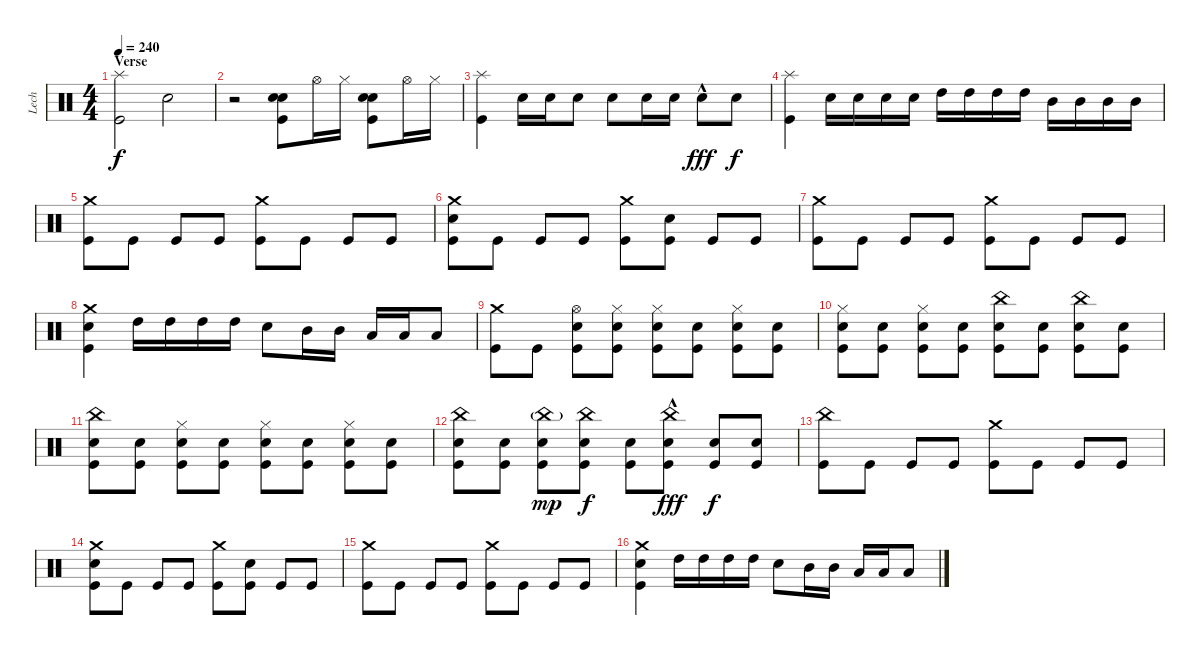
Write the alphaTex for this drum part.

\track ("Lech" "Lech") {instrument percussion}
\staff {score}
\articulation defaults
\ts (4 4)
\section ("" "Verse")
\tempo 240
\clef neutral
\ks c
("Splash (hit)" "Kick (hit)").2{dy f} "Snare (hit)".2{volume 0} |
r.2 ("Electric Snare (hit)" "Snare (hit) 2" "Kick (hit)").8{volume 13} "Hi-Hat (open)".16 "Hi-Hat (closed)".16 ("Electric Snare (hit)" "Snare (hit) 2" "Kick (hit)").8 "Hi-Hat (open)".16 "Hi-Hat (closed)".16 |
("Splash (hit)" "Kick (hit)").4 "Snare (hit) 2".16 "Snare (hit) 2".16 "Snare (hit) 2".8 "Snare (hit) 2".8 "Snare (hit) 2".16 "Snare (hit) 2".16 "Electric Snare (hit)"{hac}.8{dy fff} "Snare (hit) 2".8{dy f} |
("Splash (hit)" "Kick (hit)").4 "Snare (hit) 2".16 "Snare (hit) 2".16 "Snare (hit) 2".16 "Snare (hit) 2".16 "High Tom (hit)".16 "High Tom (hit)".16 "High Tom (hit)".16 "High Tom (hit)".16 "Mid Tom (hit)".16 "Mid Tom (hit)".16 "Mid Tom (hit)".16 "Mid Tom (hit)".16 |
("Crash medium (hit)" "Kick (hit)").8 "Kick (hit)".8 "Kick (hit)".8 "Kick (hit)".8 ("Crash medium (hit)" "Kick (hit)").8 "Kick (hit)".8 "Kick (hit)".8 "Kick (hit)".8 |
("Crash medium (hit)" "Snare (hit) 2" "Kick (hit)").8 "Kick (hit)".8 "Kick (hit)".8 "Kick (hit)".8 ("Crash medium (hit)" "Kick (hit)").8 ("Snare (hit) 2" "Kick (hit)").8 "Kick (hit)".8 "Kick (hit)".8 |
("Crash medium (hit)" "Kick (hit)").8 "Kick (hit)".8 "Kick (hit)".8 "Kick (hit)".8 ("Crash medium (hit)" "Kick (hit)").8 "Kick (hit)".8 "Kick (hit)".8 "Kick (hit)".8 |
("Crash medium (hit)" "Snare (hit) 2" "Kick (hit)").4 "High Tom (hit)".16 "High Tom (hit)".16 "High Tom (hit)".16 "High Tom (hit)".16 "Snare (hit) 2".8 "Mid Tom (hit)".16 "Mid Tom (hit)".16 "Low Tom (hit)".16 "Low Tom (hit)".16 "Low Tom (hit)".8 |
("Crash medium (hit)" "Kick (hit)").8 "Kick (hit)".8 ("Hi-Hat (open)" "Snare (hit) 2" "Kick (hit)").8 ("Hi-Hat (closed)" "Snare (hit) 2" "Kick (hit)").8 ("Hi-Hat (closed)" "Snare (hit) 2" "Kick (hit)").8 ("Snare (hit) 2" "Kick (hit)").8 ("Hi-Hat (closed)" "Snare (hit) 2" "Kick (hit)").8 ("Snare (hit) 2" "Kick (hit)").8 |
("Hi-Hat (closed)" "Snare (hit) 2" "Kick (hit)").8 ("Snare (hit) 2" "Kick (hit)").8 ("Hi-Hat (closed)" "Snare (hit) 2" "Kick (hit)").8 ("Snare (hit) 2" "Kick (hit)").8 ("China (hit)" "Snare (hit) 2" "Kick (hit)").8 ("Snare (hit) 2" "Kick (hit)").8 ("China (hit)" "Snare (hit) 2" "Kick (hit)").8 ("Snare (hit) 2" "Kick (hit)").8 |
("China (hit)" "Snare (hit) 2" "Kick (hit)").8 ("Snare (hit) 2" "Kick (hit)").8 ("Hi-Hat (closed)" "Snare (hit) 2" "Kick (hit)").8 ("Snare (hit) 2" "Kick (hit)").8 ("Hi-Hat (closed)" "Snare (hit) 2" "Kick (hit)").8 ("Snare (hit) 2" "Kick (hit)").8 ("Hi-Hat (closed)" "Snare (hit) 2" "Kick (hit)").8 ("Snare (hit) 2" "Kick (hit)").8 |
("China (hit)" "Snare (hit) 2" "Kick (hit)").8 ("Snare (hit) 2" "Kick (hit)").8 ("China (hit)"{g} "Snare (hit) 2" "Kick (hit)").8{dy mp} ("China (hit)" "Snare (hit) 2" "Kick (hit)").8{dy f} ("Snare (hit) 2" "Kick (hit)").8 ("China (hit)"{hac} "Snare (hit) 2" "Kick (hit)").8{dy fff} ("Snare (hit) 2" "Kick (hit)").8{dy f} ("Snare (hit) 2" "Kick (hit)").8 |
("China (hit)" "Kick (hit)").8 "Kick (hit)".8 "Kick (hit)".8 "Kick (hit)".8 ("Crash medium (hit)" "Kick (hit)").8 "Kick (hit)".8 "Kick (hit)".8 "Kick (hit)".8 |
("Crash medium (hit)" "Snare (hit) 2" "Kick (hit)").8 "Kick (hit)".8 "Kick (hit)".8 "Kick (hit)".8 ("Crash medium (hit)" "Kick (hit)").8 ("Snare (hit) 2" "Kick (hit)").8 "Kick (hit)".8 "Kick (hit)".8 |
("Crash medium (hit)" "Kick (hit)").8 "Kick (hit)".8 "Kick (hit)".8 "Kick (hit)".8 ("Crash medium (hit)" "Kick (hit)").8 "Kick (hit)".8 "Kick (hit)".8 "Kick (hit)".8 |
("Crash medium (hit)" "Snare (hit) 2" "Kick (hit)").4 "High Tom (hit)".16 "High Tom (hit)".16 "High Tom (hit)".16 "High Tom (hit)".16 "Snare (hit) 2".8 "Mid Tom (hit)".16 "Mid Tom (hit)".16 "Low Tom (hit)".16 "Low Tom (hit)".16 "Low Tom (hit)".8
